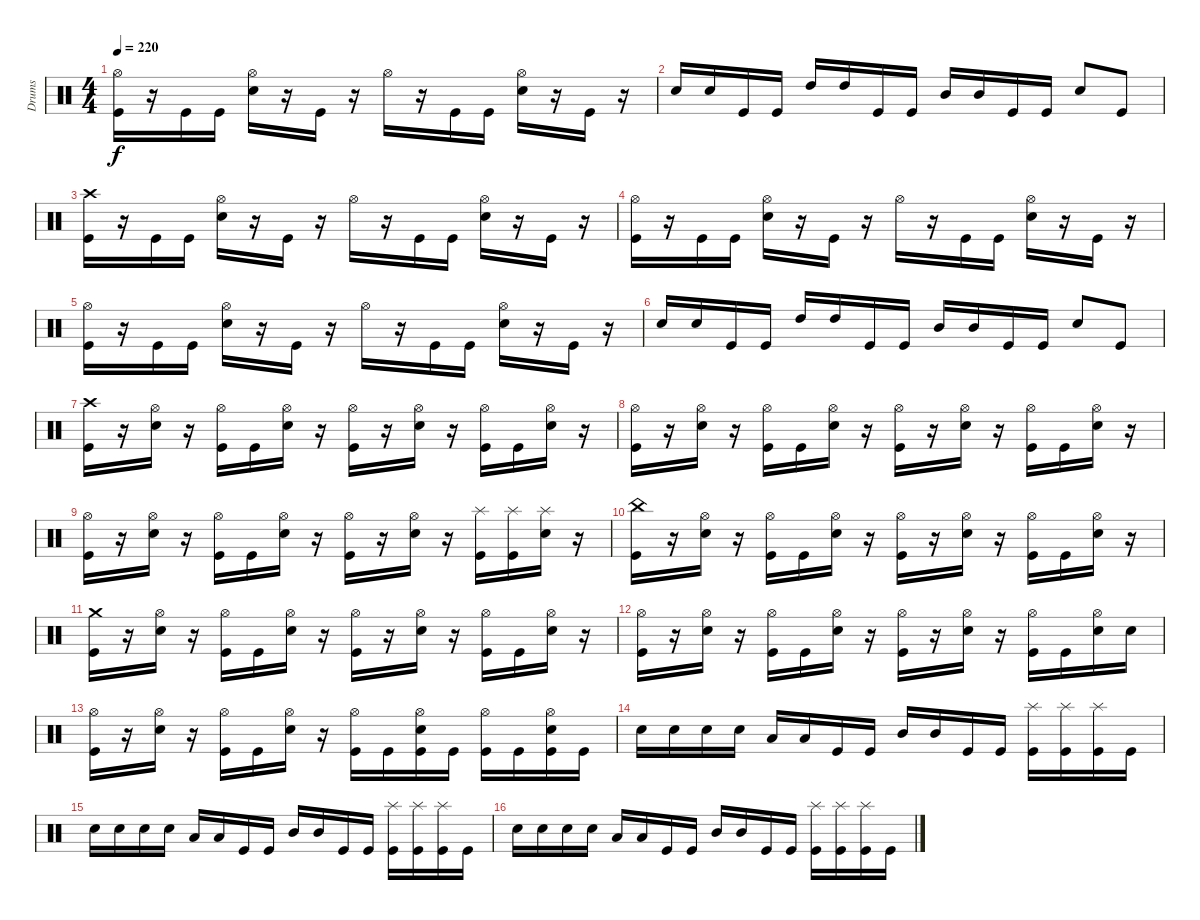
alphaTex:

\track ("Drums" "Drums") {instrument percussion}
\staff {score}
\articulation defaults
\ts (4 4)
\tempo 220
\clef neutral
\ks c
("Hi-Hat (open)" "Kick (hit)").16{dy f} r.16 "Kick (hit)".16 "Kick (hit)".16 ("Hi-Hat (open)" "Snare (hit) 2").16 r.16 "Kick (hit)".16 r.16 "Hi-Hat (open)".16 r.16 "Kick (hit)".16 "Kick (hit)".16 ("Hi-Hat (open)" "Snare (hit) 2").16 r.16 "Kick (hit)".16 r.16 |
"Snare (hit) 2".16 "Snare (hit) 2".16 "Kick (hit)".16 "Kick (hit)".16 "High Tom (hit)".16 "High Tom (hit)".16 "Kick (hit)".16 "Kick (hit)".16 "Mid Tom (hit)".16 "Mid Tom (hit)".16 "Kick (hit)".16 "Kick (hit)".16 "Snare (hit) 2".8 "Kick (hit)".8 |
("Crash high (hit)" "Kick (hit)").16 r.16 "Kick (hit)".16 "Kick (hit)".16 ("Hi-Hat (open)" "Snare (hit) 2").16 r.16 "Kick (hit)".16 r.16 "Hi-Hat (open)".16 r.16 "Kick (hit)".16 "Kick (hit)".16 ("Hi-Hat (open)" "Snare (hit) 2").16 r.16 "Kick (hit)".16 r.16 |
("Hi-Hat (open)" "Kick (hit)").16 r.16 "Kick (hit)".16 "Kick (hit)".16 ("Hi-Hat (open)" "Snare (hit) 2").16 r.16 "Kick (hit)".16 r.16 "Hi-Hat (open)".16 r.16 "Kick (hit)".16 "Kick (hit)".16 ("Hi-Hat (open)" "Snare (hit) 2").16 r.16 "Kick (hit)".16 r.16 |
("Hi-Hat (open)" "Kick (hit)").16 r.16 "Kick (hit)".16 "Kick (hit)".16 ("Hi-Hat (open)" "Snare (hit) 2").16 r.16 "Kick (hit)".16 r.16 "Hi-Hat (open)".16 r.16 "Kick (hit)".16 "Kick (hit)".16 ("Hi-Hat (open)" "Snare (hit) 2").16 r.16 "Kick (hit)".16 r.16 |
"Snare (hit) 2".16 "Snare (hit) 2".16 "Kick (hit)".16 "Kick (hit)".16 "High Tom (hit)".16 "High Tom (hit)".16 "Kick (hit)".16 "Kick (hit)".16 "Mid Tom (hit)".16 "Mid Tom (hit)".16 "Kick (hit)".16 "Kick (hit)".16 "Snare (hit) 2".8 "Kick (hit)".8 |
("Crash high (hit)" "Kick (hit)").16 r.16 ("Hi-Hat (open)" "Snare (hit) 2").16 r.16 ("Hi-Hat (open)" "Kick (hit)").16 "Kick (hit)".16 ("Hi-Hat (open)" "Snare (hit) 2").16 r.16 ("Hi-Hat (open)" "Kick (hit)").16 r.16 ("Hi-Hat (open)" "Snare (hit) 2").16 r.16 ("Hi-Hat (open)" "Kick (hit)").16 "Kick (hit)".16 ("Hi-Hat (open)" "Snare (hit) 2").16 r.16 |
("Hi-Hat (open)" "Kick (hit)").16 r.16 ("Hi-Hat (open)" "Snare (hit) 2").16 r.16 ("Hi-Hat (open)" "Kick (hit)").16 "Kick (hit)".16 ("Hi-Hat (open)" "Snare (hit) 2").16 r.16 ("Hi-Hat (open)" "Kick (hit)").16 r.16 ("Hi-Hat (open)" "Snare (hit) 2").16 r.16 ("Hi-Hat (open)" "Kick (hit)").16 "Kick (hit)".16 ("Hi-Hat (open)" "Snare (hit) 2").16 r.16 |
("Hi-Hat (open)" "Kick (hit)").16 r.16 ("Hi-Hat (open)" "Snare (hit) 2").16 r.16 ("Hi-Hat (open)" "Kick (hit)").16 "Kick (hit)".16 ("Hi-Hat (open)" "Snare (hit) 2").16 r.16 ("Hi-Hat (open)" "Kick (hit)").16 r.16 ("Hi-Hat (open)" "Snare (hit) 2").16 r.16 ("Splash (hit)" "Kick (hit)").16 ("Splash (hit)" "Kick (hit)").16 ("Splash (hit)" "Snare (hit) 2").16 r.16 |
("China (hit)" "Kick (hit)").16 r.16 ("Hi-Hat (open)" "Snare (hit) 2").16 r.16 ("Hi-Hat (open)" "Kick (hit)").16 "Kick (hit)".16 ("Hi-Hat (open)" "Snare (hit) 2").16 r.16 ("Hi-Hat (open)" "Kick (hit)").16 r.16 ("Hi-Hat (open)" "Snare (hit) 2").16 r.16 ("Hi-Hat (open)" "Kick (hit)").16 "Kick (hit)".16 ("Hi-Hat (open)" "Snare (hit) 2").16 r.16 |
("Crash medium (hit)" "Kick (hit)").16 r.16 ("Hi-Hat (open)" "Snare (hit) 2").16 r.16 ("Hi-Hat (open)" "Kick (hit)").16 "Kick (hit)".16 ("Hi-Hat (open)" "Snare (hit) 2").16 r.16 ("Hi-Hat (open)" "Kick (hit)").16 r.16 ("Hi-Hat (open)" "Snare (hit) 2").16 r.16 ("Hi-Hat (open)" "Kick (hit)").16 "Kick (hit)".16 ("Hi-Hat (open)" "Snare (hit) 2").16 r.16 |
("Hi-Hat (open)" "Kick (hit)").16 r.16 ("Hi-Hat (open)" "Snare (hit) 2").16 r.16 ("Hi-Hat (open)" "Kick (hit)").16 "Kick (hit)".16 ("Hi-Hat (open)" "Snare (hit) 2").16 r.16 ("Hi-Hat (open)" "Kick (hit)").16 r.16 ("Hi-Hat (open)" "Snare (hit) 2").16 r.16 ("Hi-Hat (open)" "Kick (hit)").16 "Kick (hit)".16 ("Hi-Hat (open)" "Snare (hit) 2").16 "Snare (hit) 2".16 |
("Hi-Hat (open)" "Kick (hit)").16 r.16 ("Hi-Hat (open)" "Snare (hit) 2").16 r.16 ("Hi-Hat (open)" "Kick (hit)").16 "Kick (hit)".16 ("Hi-Hat (open)" "Snare (hit) 2").16 r.16 ("Hi-Hat (open)" "Kick (hit)").16 "Kick (hit)".16 ("Hi-Hat (open)" "Snare (hit) 2" "Kick (hit)").16 "Kick (hit)".16 ("Hi-Hat (open)" "Kick (hit)").16 "Kick (hit)".16 ("Hi-Hat (open)" "Snare (hit) 2" "Kick (hit)").16 "Kick (hit)".16 |
"Snare (hit) 2".16 "Snare (hit) 2".16 "Snare (hit) 2".16 "Snare (hit) 2".16 "Low Tom (hit)".16 "Low Tom (hit)".16 "Kick (hit)".16 "Kick (hit)".16 "Mid Tom (hit)".16 "Mid Tom (hit)".16 "Kick (hit)".16 "Kick (hit)".16 ("Splash (hit)" "Kick (hit)").16 ("Splash (hit)" "Kick (hit)").16 ("Splash (hit)" "Kick (hit)").16 "Kick (hit)".16 |
"Snare (hit) 2".16 "Snare (hit) 2".16 "Snare (hit) 2".16 "Snare (hit) 2".16 "Low Tom (hit)".16 "Low Tom (hit)".16 "Kick (hit)".16 "Kick (hit)".16 "Mid Tom (hit)".16 "Mid Tom (hit)".16 "Kick (hit)".16 "Kick (hit)".16 ("Splash (hit)" "Kick (hit)").16 ("Splash (hit)" "Kick (hit)").16 ("Splash (hit)" "Kick (hit)").16 "Kick (hit)".16 |
"Snare (hit) 2".16 "Snare (hit) 2".16 "Snare (hit) 2".16 "Snare (hit) 2".16 "Low Tom (hit)".16 "Low Tom (hit)".16 "Kick (hit)".16 "Kick (hit)".16 "Mid Tom (hit)".16 "Mid Tom (hit)".16 "Kick (hit)".16 "Kick (hit)".16 ("Splash (hit)" "Kick (hit)").16 ("Splash (hit)" "Kick (hit)").16 ("Splash (hit)" "Kick (hit)").16 "Kick (hit)".16
